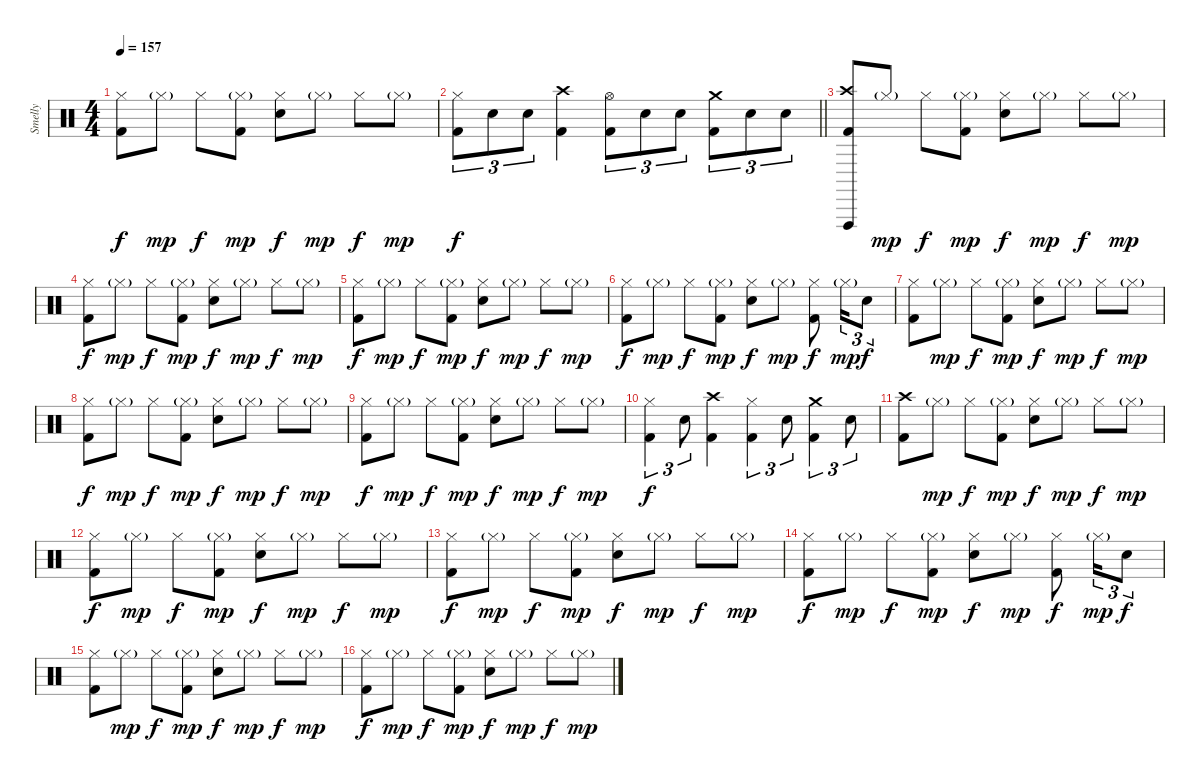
\track ("Smelly" "Smelly") {instrument percussion}
\staff {score}
\articulation defaults
\ts (4 4)
\tempo 157
\clef neutral
\ks c
("Hi-Hat (closed)" "Kick (hit) 2").8{dy f} "Hi-Hat (closed)"{g}.8{dy mp} "Hi-Hat (closed)".8{dy f} ("Hi-Hat (closed)"{g} "Kick (hit) 2").8{dy mp} ("Hi-Hat (closed)" "Electric Snare (hit)").8{dy f} "Hi-Hat (closed)"{g}.8{dy mp} "Hi-Hat (closed)".8{dy f} "Hi-Hat (closed)"{g}.8{dy mp} |
\barLineRight lightlight
("Hi-Hat (closed)" "Kick (hit) 2").8{tu (3 2) dy f} "Electric Snare (hit)".8{tu (3 2)} "Electric Snare (hit)".8{tu (3 2)} ("Crash high (hit)" "Kick (hit) 2").4 ("Hi-Hat (open)" "Kick (hit) 2").8{tu (3 2)} "Electric Snare (hit)".8{tu (3 2)} "Electric Snare (hit)".8{tu (3 2)} ("Crash medium (hit)" "Kick (hit) 2").8{tu (3 2)} "Electric Snare (hit)".8{tu (3 2)} "Electric Snare (hit)".8{tu (3 2)} |
\section ("" "")
("Crash high (hit)" "Vibraslap (hit)" "Kick (hit) 2").8 "Hi-Hat (closed)"{g}.8{dy mp} "Hi-Hat (closed)".8{dy f} ("Hi-Hat (closed)"{g} "Kick (hit) 2").8{dy mp} ("Hi-Hat (closed)" "Electric Snare (hit)").8{dy f} "Hi-Hat (closed)"{g}.8{dy mp} "Hi-Hat (closed)".8{dy f} "Hi-Hat (closed)"{g}.8{dy mp} |
("Hi-Hat (closed)" "Kick (hit) 2").8{dy f} "Hi-Hat (closed)"{g}.8{dy mp} "Hi-Hat (closed)".8{dy f} ("Hi-Hat (closed)"{g} "Kick (hit) 2").8{dy mp} ("Hi-Hat (closed)" "Electric Snare (hit)").8{dy f} "Hi-Hat (closed)"{g}.8{dy mp} "Hi-Hat (closed)".8{dy f} "Hi-Hat (closed)"{g}.8{dy mp} |
("Hi-Hat (closed)" "Kick (hit) 2").8{dy f} "Hi-Hat (closed)"{g}.8{dy mp} "Hi-Hat (closed)".8{dy f} ("Hi-Hat (closed)"{g} "Kick (hit) 2").8{dy mp} ("Hi-Hat (closed)" "Electric Snare (hit)").8{dy f} "Hi-Hat (closed)"{g}.8{dy mp} "Hi-Hat (closed)".8{dy f} "Hi-Hat (closed)"{g}.8{dy mp} |
("Hi-Hat (closed)" "Kick (hit) 2").8{dy f} "Hi-Hat (closed)"{g}.8{dy mp} "Hi-Hat (closed)".8{dy f} ("Hi-Hat (closed)"{g} "Kick (hit) 2").8{dy mp} ("Hi-Hat (closed)" "Electric Snare (hit)").8{dy f} "Hi-Hat (closed)"{g}.8{dy mp} ("Hi-Hat (closed)" "Kick (hit) 2").8{dy f} "Hi-Hat (closed)"{g}.16{tu (3 2) dy mp} "Electric Snare (hit)".8{tu (3 2) dy f} |
("Hi-Hat (closed)" "Kick (hit) 2").8 "Hi-Hat (closed)"{g}.8{dy mp} "Hi-Hat (closed)".8{dy f} ("Hi-Hat (closed)"{g} "Kick (hit) 2").8{dy mp} ("Hi-Hat (closed)" "Electric Snare (hit)").8{dy f} "Hi-Hat (closed)"{g}.8{dy mp} "Hi-Hat (closed)".8{dy f} "Hi-Hat (closed)"{g}.8{dy mp} |
("Hi-Hat (closed)" "Kick (hit) 2").8{dy f} "Hi-Hat (closed)"{g}.8{dy mp} "Hi-Hat (closed)".8{dy f} ("Hi-Hat (closed)"{g} "Kick (hit) 2").8{dy mp} ("Hi-Hat (closed)" "Electric Snare (hit)").8{dy f} "Hi-Hat (closed)"{g}.8{dy mp} "Hi-Hat (closed)".8{dy f} "Hi-Hat (closed)"{g}.8{dy mp} |
("Hi-Hat (closed)" "Kick (hit) 2").8{dy f} "Hi-Hat (closed)"{g}.8{dy mp} "Hi-Hat (closed)".8{dy f} ("Hi-Hat (closed)"{g} "Kick (hit) 2").8{dy mp} ("Hi-Hat (closed)" "Electric Snare (hit)").8{dy f} "Hi-Hat (closed)"{g}.8{dy mp} "Hi-Hat (closed)".8{dy f} "Hi-Hat (closed)"{g}.8{dy mp} |
("Hi-Hat (closed)" "Kick (hit) 2").4{tu (3 2) dy f} "Electric Snare (hit)".8{tu (3 2)} ("Crash high (hit)" "Kick (hit) 2").4 ("Hi-Hat (closed)" "Kick (hit) 2").4{tu (3 2)} "Electric Snare (hit)".8{tu (3 2)} ("Crash medium (hit)" "Kick (hit) 2").4{tu (3 2)} "Electric Snare (hit)".8{tu (3 2)} |
("Crash high (hit)" "Kick (hit) 2").8 "Hi-Hat (closed)"{g}.8{dy mp} "Hi-Hat (closed)".8{dy f} ("Hi-Hat (closed)"{g} "Kick (hit) 2").8{dy mp} ("Hi-Hat (closed)" "Electric Snare (hit)").8{dy f} "Hi-Hat (closed)"{g}.8{dy mp} "Hi-Hat (closed)".8{dy f} "Hi-Hat (closed)"{g}.8{dy mp} |
("Hi-Hat (closed)" "Kick (hit) 2").8{dy f} "Hi-Hat (closed)"{g}.8{dy mp} "Hi-Hat (closed)".8{dy f} ("Hi-Hat (closed)"{g} "Kick (hit) 2").8{dy mp} ("Hi-Hat (closed)" "Electric Snare (hit)").8{dy f} "Hi-Hat (closed)"{g}.8{dy mp} "Hi-Hat (closed)".8{dy f} "Hi-Hat (closed)"{g}.8{dy mp} |
("Hi-Hat (closed)" "Kick (hit) 2").8{dy f} "Hi-Hat (closed)"{g}.8{dy mp} "Hi-Hat (closed)".8{dy f} ("Hi-Hat (closed)"{g} "Kick (hit) 2").8{dy mp} ("Hi-Hat (closed)" "Electric Snare (hit)").8{dy f} "Hi-Hat (closed)"{g}.8{dy mp} "Hi-Hat (closed)".8{dy f} "Hi-Hat (closed)"{g}.8{dy mp} |
("Hi-Hat (closed)" "Kick (hit) 2").8{dy f} "Hi-Hat (closed)"{g}.8{dy mp} "Hi-Hat (closed)".8{dy f} ("Hi-Hat (closed)"{g} "Kick (hit) 2").8{dy mp} ("Hi-Hat (closed)" "Electric Snare (hit)").8{dy f} "Hi-Hat (closed)"{g}.8{dy mp} ("Hi-Hat (closed)" "Kick (hit) 2").8{dy f} "Hi-Hat (closed)"{g}.16{tu (3 2) dy mp} "Electric Snare (hit)".8{tu (3 2) dy f} |
("Hi-Hat (closed)" "Kick (hit) 2").8 "Hi-Hat (closed)"{g}.8{dy mp} "Hi-Hat (closed)".8{dy f} ("Hi-Hat (closed)"{g} "Kick (hit) 2").8{dy mp} ("Hi-Hat (closed)" "Electric Snare (hit)").8{dy f} "Hi-Hat (closed)"{g}.8{dy mp} "Hi-Hat (closed)".8{dy f} "Hi-Hat (closed)"{g}.8{dy mp} |
("Hi-Hat (closed)" "Kick (hit) 2").8{dy f} "Hi-Hat (closed)"{g}.8{dy mp} "Hi-Hat (closed)".8{dy f} ("Hi-Hat (closed)"{g} "Kick (hit) 2").8{dy mp} ("Hi-Hat (closed)" "Electric Snare (hit)").8{dy f} "Hi-Hat (closed)"{g}.8{dy mp} "Hi-Hat (closed)".8{dy f} "Hi-Hat (closed)"{g}.8{dy mp}
